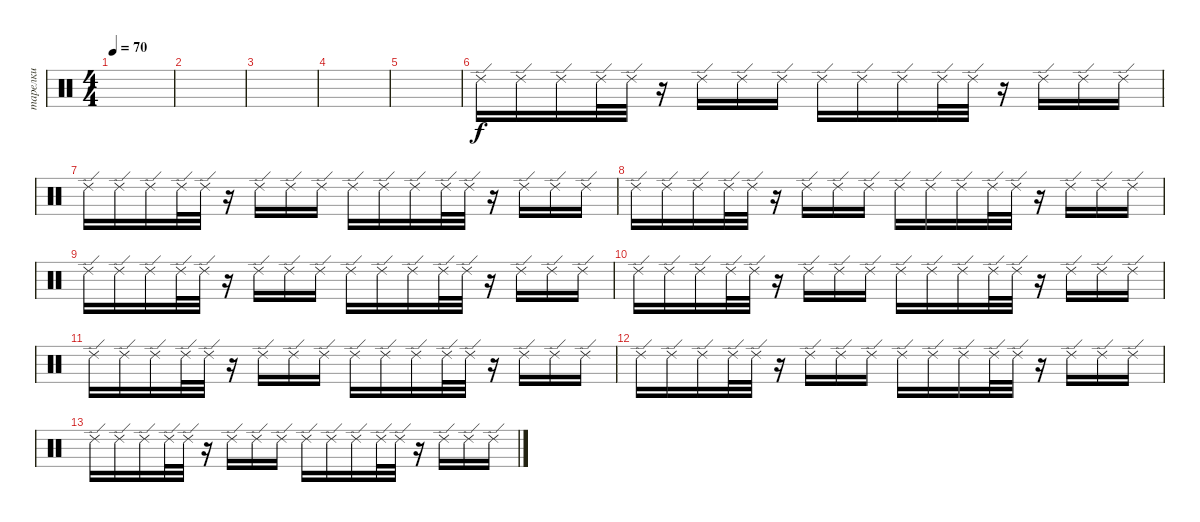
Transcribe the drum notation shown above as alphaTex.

\track ("тарелки" "тарелки") {instrument percussion}
\staff {score}
\articulation defaults
\ts (4 4)
\tempo 70
\clef neutral
\ks c
|
|
|
|
|
"Ride (edge) 2".16 "Ride (edge) 2".16 "Ride (edge) 2".16 "Ride (edge) 2".32 "Ride (edge) 2".32 r.16 "Ride (edge) 2".16 "Ride (edge) 2".16 "Ride (edge) 2".16 "Ride (edge) 2".16 "Ride (edge) 2".16 "Ride (edge) 2".16 "Ride (edge) 2".32 "Ride (edge) 2".32 r.16 "Ride (edge) 2".16 "Ride (edge) 2".16 "Ride (edge) 2".16 |
"Ride (edge) 2".16 "Ride (edge) 2".16 "Ride (edge) 2".16 "Ride (edge) 2".32 "Ride (edge) 2".32 r.16 "Ride (edge) 2".16 "Ride (edge) 2".16 "Ride (edge) 2".16 "Ride (edge) 2".16 "Ride (edge) 2".16 "Ride (edge) 2".16 "Ride (edge) 2".32 "Ride (edge) 2".32 r.16 "Ride (edge) 2".16 "Ride (edge) 2".16 "Ride (edge) 2".16 |
"Ride (edge) 2".16 "Ride (edge) 2".16 "Ride (edge) 2".16 "Ride (edge) 2".32 "Ride (edge) 2".32 r.16 "Ride (edge) 2".16 "Ride (edge) 2".16 "Ride (edge) 2".16 "Ride (edge) 2".16 "Ride (edge) 2".16 "Ride (edge) 2".16 "Ride (edge) 2".32 "Ride (edge) 2".32 r.16 "Ride (edge) 2".16 "Ride (edge) 2".16 "Ride (edge) 2".16 |
"Ride (edge) 2".16 "Ride (edge) 2".16 "Ride (edge) 2".16 "Ride (edge) 2".32 "Ride (edge) 2".32 r.16 "Ride (edge) 2".16 "Ride (edge) 2".16 "Ride (edge) 2".16 "Ride (edge) 2".16 "Ride (edge) 2".16 "Ride (edge) 2".16 "Ride (edge) 2".32 "Ride (edge) 2".32 r.16 "Ride (edge) 2".16 "Ride (edge) 2".16 "Ride (edge) 2".16 |
"Ride (edge) 2".16 "Ride (edge) 2".16 "Ride (edge) 2".16 "Ride (edge) 2".32 "Ride (edge) 2".32 r.16 "Ride (edge) 2".16 "Ride (edge) 2".16 "Ride (edge) 2".16 "Ride (edge) 2".16 "Ride (edge) 2".16 "Ride (edge) 2".16 "Ride (edge) 2".32 "Ride (edge) 2".32 r.16 "Ride (edge) 2".16 "Ride (edge) 2".16 "Ride (edge) 2".16 |
"Ride (edge) 2".16 "Ride (edge) 2".16 "Ride (edge) 2".16 "Ride (edge) 2".32 "Ride (edge) 2".32 r.16 "Ride (edge) 2".16 "Ride (edge) 2".16 "Ride (edge) 2".16 "Ride (edge) 2".16 "Ride (edge) 2".16 "Ride (edge) 2".16 "Ride (edge) 2".32 "Ride (edge) 2".32 r.16 "Ride (edge) 2".16 "Ride (edge) 2".16 "Ride (edge) 2".16 |
"Ride (edge) 2".16 "Ride (edge) 2".16 "Ride (edge) 2".16 "Ride (edge) 2".32 "Ride (edge) 2".32 r.16 "Ride (edge) 2".16 "Ride (edge) 2".16 "Ride (edge) 2".16 "Ride (edge) 2".16 "Ride (edge) 2".16 "Ride (edge) 2".16 "Ride (edge) 2".32 "Ride (edge) 2".32 r.16 "Ride (edge) 2".16 "Ride (edge) 2".16 "Ride (edge) 2".16 |
"Ride (edge) 2".16 "Ride (edge) 2".16 "Ride (edge) 2".16 "Ride (edge) 2".32 "Ride (edge) 2".32 r.16 "Ride (edge) 2".16 "Ride (edge) 2".16 "Ride (edge) 2".16 "Ride (edge) 2".16 "Ride (edge) 2".16 "Ride (edge) 2".16 "Ride (edge) 2".32 "Ride (edge) 2".32 r.16 "Ride (edge) 2".16 "Ride (edge) 2".16 "Ride (edge) 2".16
